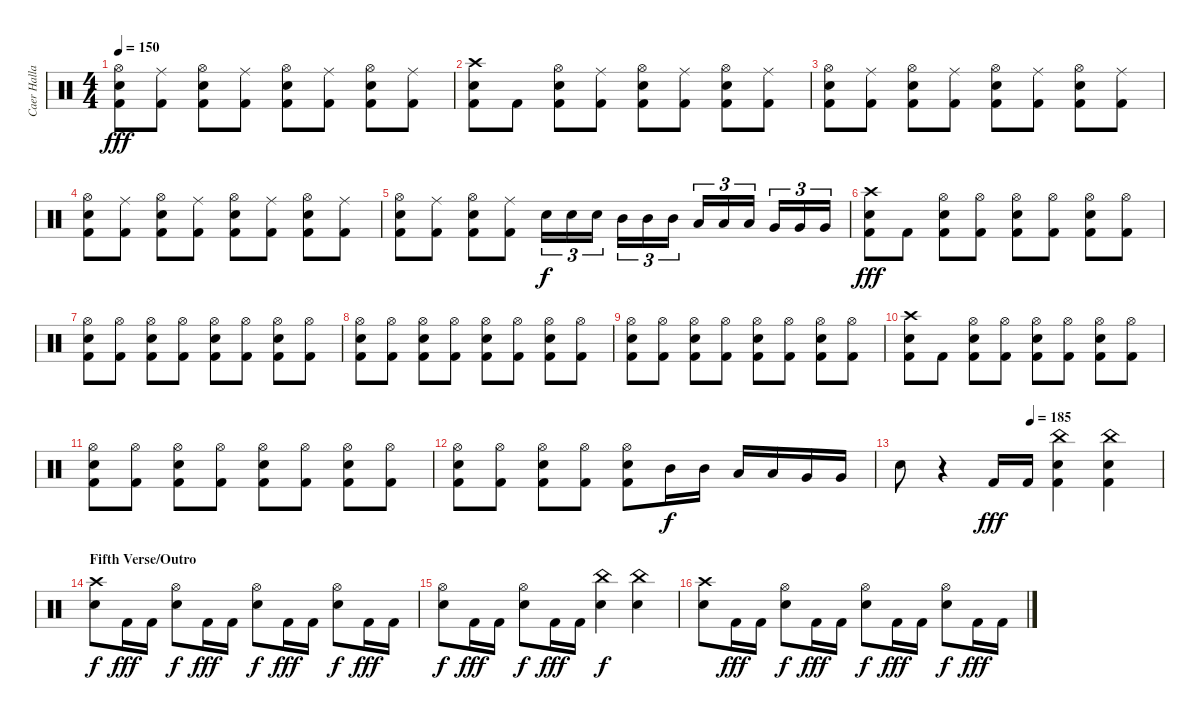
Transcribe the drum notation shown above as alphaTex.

\track ("Caer Hallam Generis" "Caer Halla") {instrument percussion}
\staff {score}
\articulation defaults
\ts (4 4)
\tempo 150
\clef neutral
\ks c
("Hi-Hat (open)" "Snare (hit) 2" "Kick (hit) 2").8{dy fff} ("Ride (middle)" "Kick (hit) 2").8 ("Hi-Hat (open)" "Snare (hit) 2" "Kick (hit) 2").8 ("Ride (middle)" "Kick (hit) 2").8 ("Hi-Hat (open)" "Snare (hit) 2" "Kick (hit) 2").8 ("Ride (middle)" "Kick (hit) 2").8 ("Hi-Hat (open)" "Snare (hit) 2" "Kick (hit) 2").8 ("Ride (middle)" "Kick (hit) 2").8 |
("Crash high (hit)" "Snare (hit) 2" "Kick (hit) 2").8 "Kick (hit) 2".8 ("Hi-Hat (open)" "Snare (hit) 2" "Kick (hit) 2").8 ("Ride (middle)" "Kick (hit) 2").8 ("Hi-Hat (open)" "Snare (hit) 2" "Kick (hit) 2").8 ("Ride (middle)" "Kick (hit) 2").8 ("Hi-Hat (open)" "Snare (hit) 2" "Kick (hit) 2").8 ("Ride (middle)" "Kick (hit) 2").8 |
("Hi-Hat (open)" "Snare (hit) 2" "Kick (hit) 2").8 ("Ride (middle)" "Kick (hit) 2").8 ("Hi-Hat (open)" "Snare (hit) 2" "Kick (hit) 2").8 ("Ride (middle)" "Kick (hit) 2").8 ("Hi-Hat (open)" "Snare (hit) 2" "Kick (hit) 2").8 ("Ride (middle)" "Kick (hit) 2").8 ("Hi-Hat (open)" "Snare (hit) 2" "Kick (hit) 2").8 ("Ride (middle)" "Kick (hit) 2").8 |
("Hi-Hat (open)" "Snare (hit) 2" "Kick (hit) 2").8 ("Ride (middle)" "Kick (hit) 2").8 ("Hi-Hat (open)" "Snare (hit) 2" "Kick (hit) 2").8 ("Ride (middle)" "Kick (hit) 2").8 ("Hi-Hat (open)" "Snare (hit) 2" "Kick (hit) 2").8 ("Ride (middle)" "Kick (hit) 2").8 ("Hi-Hat (open)" "Snare (hit) 2" "Kick (hit) 2").8 ("Ride (middle)" "Kick (hit) 2").8 |
("Hi-Hat (open)" "Snare (hit) 2" "Kick (hit) 2").8 ("Ride (middle)" "Kick (hit) 2").8 ("Hi-Hat (open)" "Snare (hit) 2" "Kick (hit) 2").8 ("Ride (middle)" "Kick (hit) 2").8 "Snare (hit) 2".16{tu (3 2) dy f} "Snare (hit) 2".16{tu (3 2)} "Snare (hit) 2".16{tu (3 2)} "Mid Tom (hit)".16{tu (3 2)} "Mid Tom (hit)".16{tu (3 2)} "Mid Tom (hit)".16{tu (3 2)} "Low Tom (hit)".16{tu (3 2)} "Low Tom (hit)".16{tu (3 2)} "Low Tom (hit)".16{tu (3 2)} "Very Low Tom (hit)".16{tu (3 2)} "Very Low Tom (hit)".16{tu (3 2)} "Very Low Tom (hit)".16{tu (3 2)} |
("Crash high (hit)" "Snare (hit) 2" "Kick (hit) 2").8{dy fff} "Kick (hit) 2".8 ("Hi-Hat (open)" "Snare (hit) 2" "Kick (hit) 2").8 ("Hi-Hat (open)" "Kick (hit) 2").8 ("Hi-Hat (open)" "Snare (hit) 2" "Kick (hit) 2").8 ("Hi-Hat (open)" "Kick (hit) 2").8 ("Hi-Hat (open)" "Snare (hit) 2" "Kick (hit) 2").8 ("Hi-Hat (open)" "Kick (hit) 2").8 |
("Hi-Hat (open)" "Snare (hit) 2" "Kick (hit) 2").8 ("Hi-Hat (open)" "Kick (hit) 2").8 ("Hi-Hat (open)" "Snare (hit) 2" "Kick (hit) 2").8 ("Hi-Hat (open)" "Kick (hit) 2").8 ("Hi-Hat (open)" "Snare (hit) 2" "Kick (hit) 2").8 ("Hi-Hat (open)" "Kick (hit) 2").8 ("Hi-Hat (open)" "Snare (hit) 2" "Kick (hit) 2").8 ("Hi-Hat (open)" "Kick (hit) 2").8 |
("Hi-Hat (open)" "Snare (hit) 2" "Kick (hit) 2").8 ("Hi-Hat (open)" "Kick (hit) 2").8 ("Hi-Hat (open)" "Snare (hit) 2" "Kick (hit) 2").8 ("Hi-Hat (open)" "Kick (hit) 2").8 ("Hi-Hat (open)" "Snare (hit) 2" "Kick (hit) 2").8 ("Hi-Hat (open)" "Kick (hit) 2").8 ("Hi-Hat (open)" "Snare (hit) 2" "Kick (hit) 2").8 ("Hi-Hat (open)" "Kick (hit) 2").8 |
("Hi-Hat (open)" "Snare (hit) 2" "Kick (hit) 2").8 ("Hi-Hat (open)" "Kick (hit) 2").8 ("Hi-Hat (open)" "Snare (hit) 2" "Kick (hit) 2").8 ("Hi-Hat (open)" "Kick (hit) 2").8 ("Hi-Hat (open)" "Snare (hit) 2" "Kick (hit) 2").8 ("Hi-Hat (open)" "Kick (hit) 2").8 ("Hi-Hat (open)" "Snare (hit) 2" "Kick (hit) 2").8 ("Hi-Hat (open)" "Kick (hit) 2").8 |
("Crash high (hit)" "Snare (hit) 2" "Kick (hit) 2").8 "Kick (hit) 2".8 ("Hi-Hat (open)" "Snare (hit) 2" "Kick (hit) 2").8 ("Hi-Hat (open)" "Kick (hit) 2").8 ("Hi-Hat (open)" "Snare (hit) 2" "Kick (hit) 2").8 ("Hi-Hat (open)" "Kick (hit) 2").8 ("Hi-Hat (open)" "Snare (hit) 2" "Kick (hit) 2").8 ("Hi-Hat (open)" "Kick (hit) 2").8 |
("Hi-Hat (open)" "Snare (hit) 2" "Kick (hit) 2").8 ("Hi-Hat (open)" "Kick (hit) 2").8 ("Hi-Hat (open)" "Snare (hit) 2" "Kick (hit) 2").8 ("Hi-Hat (open)" "Kick (hit) 2").8 ("Hi-Hat (open)" "Snare (hit) 2" "Kick (hit) 2").8 ("Hi-Hat (open)" "Kick (hit) 2").8 ("Hi-Hat (open)" "Snare (hit) 2" "Kick (hit) 2").8 ("Hi-Hat (open)" "Kick (hit) 2").8 |
("Hi-Hat (open)" "Snare (hit) 2" "Kick (hit) 2").8 ("Hi-Hat (open)" "Kick (hit) 2").8 ("Hi-Hat (open)" "Snare (hit) 2" "Kick (hit) 2").8 ("Hi-Hat (open)" "Kick (hit) 2").8 ("Hi-Hat (open)" "Snare (hit) 2" "Kick (hit) 2").8 "Mid Tom (hit)".16{dy f} "Mid Tom (hit)".16 "Low Tom (hit)".16 "Low Tom (hit)".16 "Very Low Tom (hit)".16 "Very Low Tom (hit)".16 |
\tempo (185 0.5)
"Snare (hit) 2".8 r.4 "Kick (hit) 2".16{dy fff} "Kick (hit) 2".16 ("China (hit)" "Snare (hit) 2" "Kick (hit) 2").4 ("China (hit)" "Snare (hit) 2" "Kick (hit) 2").4 |
\section ("" "Fifth Verse/Outro")
("Crash high (hit)" "Snare (hit) 2").8{dy f} "Kick (hit) 2".16{dy fff} "Kick (hit) 2".16 ("Hi-Hat (open)" "Snare (hit) 2").8{dy f} "Kick (hit) 2".16{dy fff} "Kick (hit) 2".16 ("Hi-Hat (open)" "Snare (hit) 2").8{dy f} "Kick (hit) 2".16{dy fff} "Kick (hit) 2".16 ("Hi-Hat (open)" "Snare (hit) 2").8{dy f} "Kick (hit) 2".16{dy fff} "Kick (hit) 2".16 |
("Hi-Hat (open)" "Snare (hit) 2").8{dy f} "Kick (hit) 2".16{dy fff} "Kick (hit) 2".16 ("Hi-Hat (open)" "Snare (hit) 2").8{dy f} "Kick (hit) 2".16{dy fff} "Kick (hit) 2".16 ("China (hit)" "Snare (hit) 2").4{dy f} ("China (hit)" "Snare (hit) 2").4 |
("Crash high (hit)" "Snare (hit) 2").8 "Kick (hit) 2".16{dy fff} "Kick (hit) 2".16 ("Hi-Hat (open)" "Snare (hit) 2").8{dy f} "Kick (hit) 2".16{dy fff} "Kick (hit) 2".16 ("Hi-Hat (open)" "Snare (hit) 2").8{dy f} "Kick (hit) 2".16{dy fff} "Kick (hit) 2".16 ("Hi-Hat (open)" "Snare (hit) 2").8{dy f} "Kick (hit) 2".16{dy fff} "Kick (hit) 2".16
